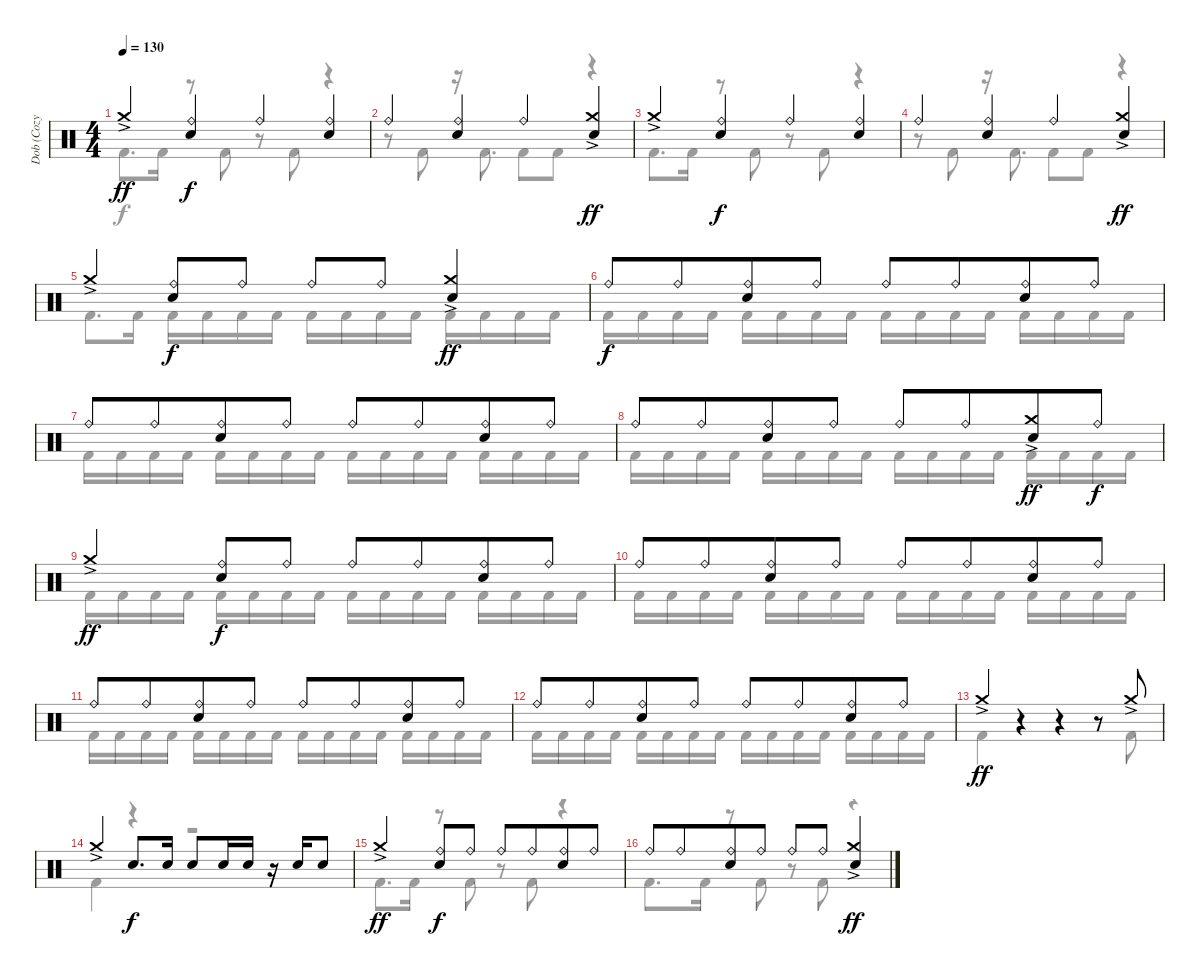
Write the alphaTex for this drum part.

\track ("Dob (Cozy Powell)" "Dob (Cozy ") {instrument percussion}
\staff {score}
\articulation defaults
\voice
\ts (4 4)
\tempo 130
\clef neutral
\ks c "Crash medium (hit)"{ac}.4{dy ff}
("Ride (bell)" "Electric Snare (hit)").4{dy f} "Ride (bell)".4 ("Ride (bell)" "Electric Snare (hit)").4 |
"Ride (bell)".4 ("Ride (bell)" "Electric Snare (hit)").4 "Ride (bell)".4 ("Crash medium (hit)"{ac} "Electric Snare (hit)").4{dy ff} |
"Crash medium (hit)"{ac}.4 ("Ride (bell)" "Electric Snare (hit)").4{dy f} "Ride (bell)".4 ("Ride (bell)" "Electric Snare (hit)").4 |
"Ride (bell)".4 ("Ride (bell)" "Electric Snare (hit)").4 "Ride (bell)".4 ("Crash medium (hit)"{ac} "Electric Snare (hit)").4{dy ff} |
"Crash medium (hit)"{ac}.4 ("Ride (bell)" "Electric Snare (hit)").8{dy f} "Ride (bell)".8 "Ride (bell)".8 "Ride (bell)".8 ("Crash medium (hit)"{ac} "Electric Snare (hit)").4{dy ff} |
"Ride (bell)".8{dy f} "Ride (bell)".8{beam merge} ("Ride (bell)" "Electric Snare (hit)").8 "Ride (bell)".8 "Ride (bell)".8 "Ride (bell)".8{beam merge} ("Ride (bell)" "Electric Snare (hit)").8 "Ride (bell)".8 |
"Ride (bell)".8 "Ride (bell)".8{beam merge} ("Ride (bell)" "Electric Snare (hit)").8 "Ride (bell)".8 "Ride (bell)".8 "Ride (bell)".8{beam merge} ("Ride (bell)" "Electric Snare (hit)").8 "Ride (bell)".8 |
"Ride (bell)".8 "Ride (bell)".8{beam merge} ("Ride (bell)" "Electric Snare (hit)").8 "Ride (bell)".8 "Ride (bell)".8 "Ride (bell)".8{beam merge} ("Crash medium (hit)"{ac} "Electric Snare (hit)").8{dy ff} "Ride (bell)".8{dy f} |
"Crash medium (hit)"{ac}.4{dy ff} ("Ride (bell)" "Electric Snare (hit)").8{dy f} "Ride (bell)".8 "Ride (bell)".8 "Ride (bell)".8{beam merge} ("Ride (bell)" "Electric Snare (hit)").8 "Ride (bell)".8 |
"Ride (bell)".8 "Ride (bell)".8{beam merge} ("Ride (bell)" "Electric Snare (hit)").8 "Ride (bell)".8 "Ride (bell)".8 "Ride (bell)".8{beam merge} ("Ride (bell)" "Electric Snare (hit)").8 "Ride (bell)".8 |
"Ride (bell)".8 "Ride (bell)".8{beam merge} ("Ride (bell)" "Electric Snare (hit)").8 "Ride (bell)".8 "Ride (bell)".8 "Ride (bell)".8{beam merge} ("Ride (bell)" "Electric Snare (hit)").8 "Ride (bell)".8 |
"Ride (bell)".8 "Ride (bell)".8{beam merge} ("Ride (bell)" "Electric Snare (hit)").8 "Ride (bell)".8 "Ride (bell)".8 "Ride (bell)".8{beam merge} ("Ride (bell)" "Electric Snare (hit)").8 "Ride (bell)".8 |
"Crash medium (hit)"{ac}.4{dy ff} r.4 r.4 r.8 "Crash medium (hit)"{ac}.8 |
"Crash medium (hit)"{ac}.4 "Electric Snare (hit)".8{d dy f} "Electric Snare (hit)".16 "Electric Snare (hit)".8 "Electric Snare (hit)".16 "Electric Snare (hit)".16 r.16 "Electric Snare (hit)".16 "Electric Snare (hit)".8 |
"Crash medium (hit)"{ac}.4{dy ff} ("Ride (bell)" "Electric Snare (hit)").8{dy f} "Ride (bell)".8 "Ride (bell)".8 "Ride (bell)".8{beam merge} ("Ride (bell)" "Electric Snare (hit)").8 "Ride (bell)".8 |
"Ride (bell)".8 "Ride (bell)".8{beam merge} ("Ride (bell)" "Electric Snare (hit)").8 "Ride (bell)".8 "Ride (bell)".8 "Ride (bell)".8 ("Crash medium (hit)"{ac} "Electric Snare (hit)").4{dy ff}
\voice
\clef neutral
\ottava regular
\simile none
\ks c "Kick (hit) 2".8{d dy f} "Kick (hit) 2".16
r.8 "Kick (hit) 2".8 r.8 "Kick (hit) 2".8 r.4 |
r.8 "Kick (hit) 2".8 r.16 "Kick (hit) 2".8{d} "Kick (hit) 2".8 "Kick (hit) 2".8 r.4 |
"Kick (hit) 2".8{d} "Kick (hit) 2".16 r.8 "Kick (hit) 2".8 r.8 "Kick (hit) 2".8 r.4 |
r.8 "Kick (hit) 2".8 r.16 "Kick (hit) 2".8{d} "Kick (hit) 2".8 "Kick (hit) 2".8 r.4 |
"Kick (hit) 2".8{d} "Kick (hit) 2".16 "Kick (hit) 2".16 "Kick (hit) 2".16 "Kick (hit) 2".16 "Kick (hit) 2".16 "Kick (hit) 2".16 "Kick (hit) 2".16 "Kick (hit) 2".16 "Kick (hit) 2".16 "Kick (hit) 2".16 "Kick (hit) 2".16 "Kick (hit) 2".16 "Kick (hit) 2".16 |
"Kick (hit) 2".16 "Kick (hit) 2".16 "Kick (hit) 2".16 "Kick (hit) 2".16 "Kick (hit) 2".16 "Kick (hit) 2".16 "Kick (hit) 2".16 "Kick (hit) 2".16 "Kick (hit) 2".16 "Kick (hit) 2".16 "Kick (hit) 2".16 "Kick (hit) 2".16 "Kick (hit) 2".16 "Kick (hit) 2".16 "Kick (hit) 2".16 "Kick (hit) 2".16 |
"Kick (hit) 2".16 "Kick (hit) 2".16 "Kick (hit) 2".16 "Kick (hit) 2".16 "Kick (hit) 2".16 "Kick (hit) 2".16 "Kick (hit) 2".16 "Kick (hit) 2".16 "Kick (hit) 2".16 "Kick (hit) 2".16 "Kick (hit) 2".16 "Kick (hit) 2".16 "Kick (hit) 2".16 "Kick (hit) 2".16 "Kick (hit) 2".16 "Kick (hit) 2".16 |
"Kick (hit) 2".16 "Kick (hit) 2".16 "Kick (hit) 2".16 "Kick (hit) 2".16 "Kick (hit) 2".16 "Kick (hit) 2".16 "Kick (hit) 2".16 "Kick (hit) 2".16 "Kick (hit) 2".16 "Kick (hit) 2".16 "Kick (hit) 2".16 "Kick (hit) 2".16 "Kick (hit) 2".16 "Kick (hit) 2".16 "Kick (hit) 2".16 "Kick (hit) 2".16 |
"Kick (hit) 2".16 "Kick (hit) 2".16 "Kick (hit) 2".16 "Kick (hit) 2".16 "Kick (hit) 2".16 "Kick (hit) 2".16 "Kick (hit) 2".16 "Kick (hit) 2".16 "Kick (hit) 2".16 "Kick (hit) 2".16 "Kick (hit) 2".16 "Kick (hit) 2".16 "Kick (hit) 2".16 "Kick (hit) 2".16 "Kick (hit) 2".16 "Kick (hit) 2".16 |
"Kick (hit) 2".16 "Kick (hit) 2".16 "Kick (hit) 2".16 "Kick (hit) 2".16 "Kick (hit) 2".16 "Kick (hit) 2".16 "Kick (hit) 2".16 "Kick (hit) 2".16 "Kick (hit) 2".16 "Kick (hit) 2".16 "Kick (hit) 2".16 "Kick (hit) 2".16 "Kick (hit) 2".16 "Kick (hit) 2".16 "Kick (hit) 2".16 "Kick (hit) 2".16 |
"Kick (hit) 2".16 "Kick (hit) 2".16 "Kick (hit) 2".16 "Kick (hit) 2".16 "Kick (hit) 2".16 "Kick (hit) 2".16 "Kick (hit) 2".16 "Kick (hit) 2".16 "Kick (hit) 2".16 "Kick (hit) 2".16 "Kick (hit) 2".16 "Kick (hit) 2".16 "Kick (hit) 2".16 "Kick (hit) 2".16 "Kick (hit) 2".16 "Kick (hit) 2".16 |
"Kick (hit) 2".16 "Kick (hit) 2".16 "Kick (hit) 2".16 "Kick (hit) 2".16 "Kick (hit) 2".16 "Kick (hit) 2".16 "Kick (hit) 2".16 "Kick (hit) 2".16 "Kick (hit) 2".16 "Kick (hit) 2".16 "Kick (hit) 2".16 "Kick (hit) 2".16 "Kick (hit) 2".16 "Kick (hit) 2".16 "Kick (hit) 2".16 "Kick (hit) 2".16 |
"Kick (hit) 2".4 r.4 r.4 r.8 "Kick (hit) 2".8 |
"Kick (hit) 2".4 r.4 r.2 |
"Kick (hit) 2".8{d} "Kick (hit) 2".16 r.8 "Kick (hit) 2".8 r.8 "Kick (hit) 2".8 r.4 |
"Kick (hit) 2".8{d} "Kick (hit) 2".16 r.8 "Kick (hit) 2".8 r.8 "Kick (hit) 2".8 r.4
